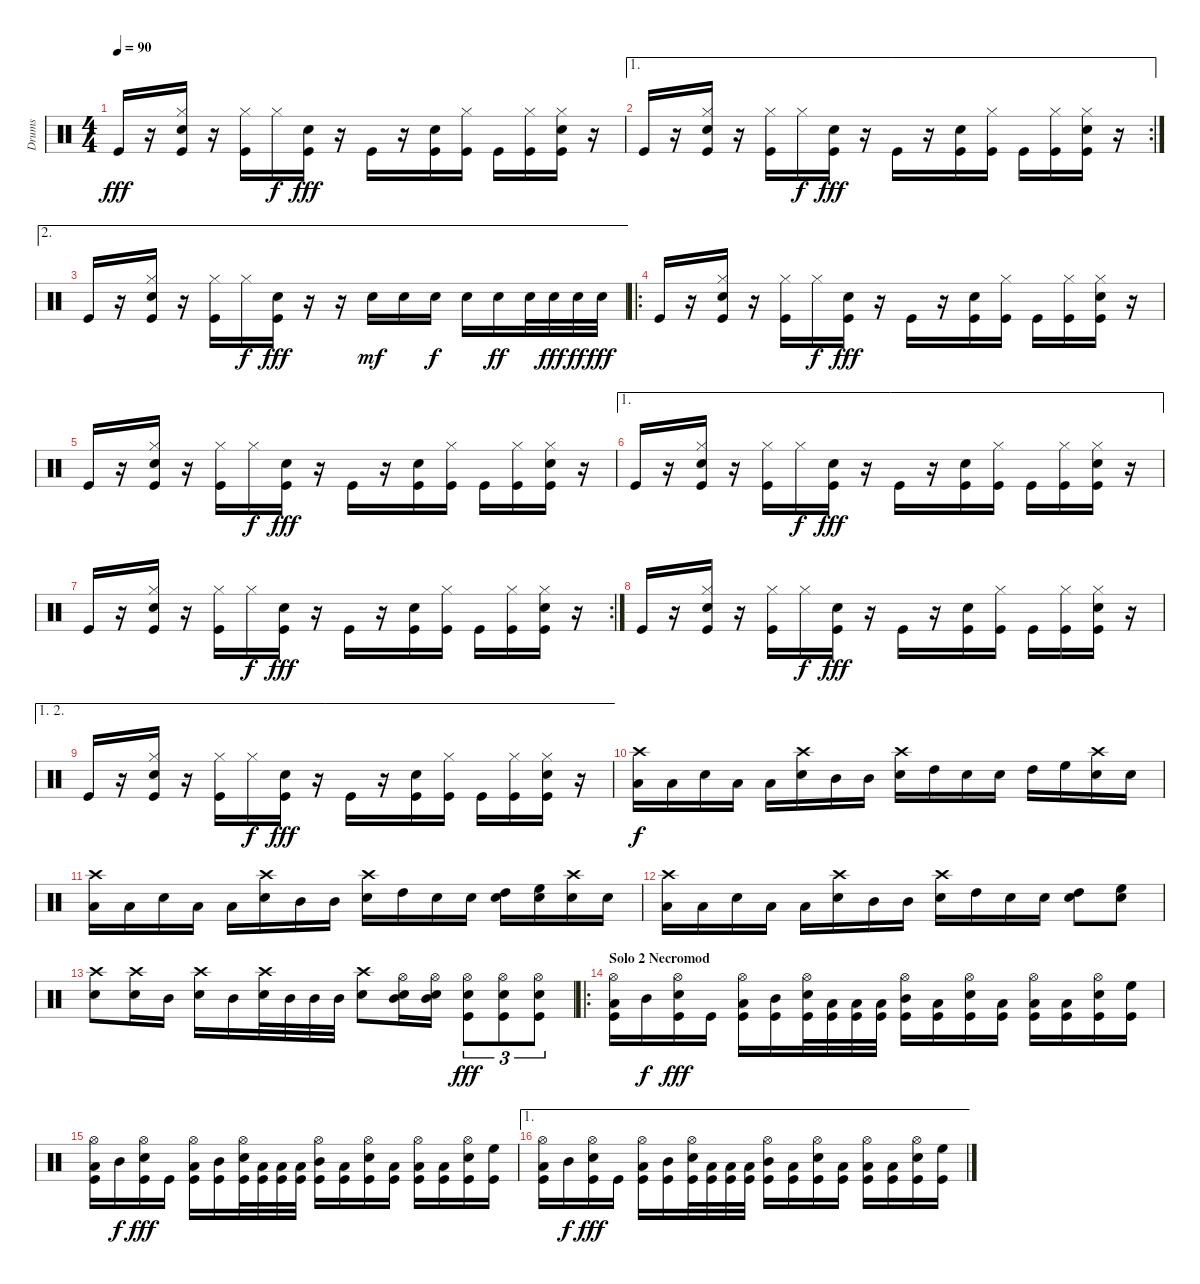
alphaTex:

\track ("Drums" "Drums") {instrument percussion}
\staff {score}
\articulation defaults
\ts (4 4)
\tempo 90
\clef neutral
\ks c "Kick (hit)".16{dy fff}
r.16 ("Hi-Hat (closed)" "Snare (hit) 2" "Kick (hit)").16 r.16 ("Hi-Hat (closed)" "Kick (hit)").16 "Hi-Hat (closed)".16{dy f} ("Snare (hit) 2" "Kick (hit)").16{dy fff} r.16 "Kick (hit)".16 r.16 ("Snare (hit) 2" "Kick (hit)").16 ("Hi-Hat (closed)" "Kick (hit)").16 "Kick (hit)".16 ("Hi-Hat (closed)" "Kick (hit)").16 ("Hi-Hat (closed)" "Snare (hit) 2" "Kick (hit)").16 r.16 |
\ae 1
\rc 2 "Kick (hit)".16
r.16 ("Hi-Hat (closed)" "Snare (hit) 2" "Kick (hit)").16 r.16 ("Hi-Hat (closed)" "Kick (hit)").16 "Hi-Hat (closed)".16{dy f} ("Snare (hit) 2" "Kick (hit)").16{dy fff} r.16 "Kick (hit)".16 r.16 ("Snare (hit) 2" "Kick (hit)").16 ("Hi-Hat (closed)" "Kick (hit)").16 "Kick (hit)".16 ("Hi-Hat (closed)" "Kick (hit)").16 ("Hi-Hat (closed)" "Snare (hit) 2" "Kick (hit)").16 r.16 |
\ae 2 "Kick (hit)".16
r.16 ("Hi-Hat (closed)" "Snare (hit) 2" "Kick (hit)").16 r.16 ("Hi-Hat (closed)" "Kick (hit)").16 "Hi-Hat (closed)".16{dy f} ("Snare (hit) 2" "Kick (hit)").16{dy fff} r.16 r.16 "Snare (hit) 2".16{dy mf} "Snare (hit) 2".16 "Snare (hit) 2".16{dy f} "Snare (hit) 2".16 "Snare (hit) 2".16{dy ff} "Snare (hit) 2".32 "Snare (hit) 2".32{dy fff} "Snare (hit) 2".32{dy ff} "Snare (hit) 2".32{dy fff} |
\ro "Kick (hit)".16
r.16 ("Hi-Hat (closed)" "Snare (hit) 2" "Kick (hit)").16 r.16 ("Hi-Hat (closed)" "Kick (hit)").16 "Hi-Hat (closed)".16{dy f} ("Snare (hit) 2" "Kick (hit)").16{dy fff} r.16 "Kick (hit)".16 r.16 ("Snare (hit) 2" "Kick (hit)").16 ("Hi-Hat (closed)" "Kick (hit)").16 "Kick (hit)".16 ("Hi-Hat (closed)" "Kick (hit)").16 ("Hi-Hat (closed)" "Snare (hit) 2" "Kick (hit)").16 r.16 |
"Kick (hit)".16 r.16 ("Hi-Hat (closed)" "Snare (hit) 2" "Kick (hit)").16 r.16 ("Hi-Hat (closed)" "Kick (hit)").16 "Hi-Hat (closed)".16{dy f} ("Snare (hit) 2" "Kick (hit)").16{dy fff} r.16 "Kick (hit)".16 r.16 ("Snare (hit) 2" "Kick (hit)").16 ("Hi-Hat (closed)" "Kick (hit)").16 "Kick (hit)".16 ("Hi-Hat (closed)" "Kick (hit)").16 ("Hi-Hat (closed)" "Snare (hit) 2" "Kick (hit)").16 r.16 |
\ae 1 "Kick (hit)".16
r.16 ("Hi-Hat (closed)" "Snare (hit) 2" "Kick (hit)").16 r.16 ("Hi-Hat (closed)" "Kick (hit)").16 "Hi-Hat (closed)".16{dy f} ("Snare (hit) 2" "Kick (hit)").16{dy fff} r.16 "Kick (hit)".16 r.16 ("Snare (hit) 2" "Kick (hit)").16 ("Hi-Hat (closed)" "Kick (hit)").16 "Kick (hit)".16 ("Hi-Hat (closed)" "Kick (hit)").16 ("Hi-Hat (closed)" "Snare (hit) 2" "Kick (hit)").16 r.16 |
\rc 2 "Kick (hit)".16
r.16 ("Hi-Hat (closed)" "Snare (hit) 2" "Kick (hit)").16 r.16 ("Hi-Hat (closed)" "Kick (hit)").16 "Hi-Hat (closed)".16{dy f} ("Snare (hit) 2" "Kick (hit)").16{dy fff} r.16 "Kick (hit)".16 r.16 ("Snare (hit) 2" "Kick (hit)").16 ("Hi-Hat (closed)" "Kick (hit)").16 "Kick (hit)".16 ("Hi-Hat (closed)" "Kick (hit)").16 ("Hi-Hat (closed)" "Snare (hit) 2" "Kick (hit)").16 r.16 |
"Kick (hit)".16 r.16 ("Hi-Hat (closed)" "Snare (hit) 2" "Kick (hit)").16 r.16 ("Hi-Hat (closed)" "Kick (hit)").16 "Hi-Hat (closed)".16{dy f} ("Snare (hit) 2" "Kick (hit)").16{dy fff} r.16 "Kick (hit)".16 r.16 ("Snare (hit) 2" "Kick (hit)").16 ("Hi-Hat (closed)" "Kick (hit)").16 "Kick (hit)".16 ("Hi-Hat (closed)" "Kick (hit)").16 ("Hi-Hat (closed)" "Snare (hit) 2" "Kick (hit)").16 r.16 |
\ae (1 2)
"Kick (hit)".16 r.16 ("Hi-Hat (closed)" "Snare (hit) 2" "Kick (hit)").16 r.16 ("Hi-Hat (closed)" "Kick (hit)").16 "Hi-Hat (closed)".16{dy f} ("Snare (hit) 2" "Kick (hit)").16{dy fff} r.16 "Kick (hit)".16 r.16 ("Snare (hit) 2" "Kick (hit)").16 ("Hi-Hat (closed)" "Kick (hit)").16 "Kick (hit)".16 ("Hi-Hat (closed)" "Kick (hit)").16 ("Hi-Hat (closed)" "Snare (hit) 2" "Kick (hit)").16 r.16 |
("Crash high (hit)" "Low Tom (hit)").16{dy f} "Low Tom (hit)".16 "Snare (hit) 2".16 "Low Tom (hit)".16 "Low Tom (hit)".16 ("Crash high (hit)" "Snare (hit) 2").16 "Mid Tom (hit)".16 "Mid Tom (hit)".16 ("Crash high (hit)" "Snare (hit) 2").16 "High Tom (hit)".16 "Snare (hit) 2".16 "Snare (hit) 2".16 "High Tom (hit)".16 "High Floor Tom (hit)".16 ("Crash high (hit)" "Snare (hit) 2").16 "Snare (hit) 2".16 |
("Crash high (hit)" "Low Tom (hit)").16 "Low Tom (hit)".16 "Snare (hit) 2".16 "Low Tom (hit)".16 "Low Tom (hit)".16 ("Crash high (hit)" "Snare (hit) 2").16 "Mid Tom (hit)".16 "Mid Tom (hit)".16 ("Crash high (hit)" "Snare (hit) 2").16 "High Tom (hit)".16 "Snare (hit) 2".16 "Snare (hit) 2".16 ("High Tom (hit)" "Snare (hit) 2").16 ("High Floor Tom (hit)" "Snare (hit) 2").16 ("Crash high (hit)" "Snare (hit) 2").16 "Snare (hit) 2".16 |
("Crash high (hit)" "Low Tom (hit)").16 "Low Tom (hit)".16 "Snare (hit) 2".16 "Low Tom (hit)".16 "Low Tom (hit)".16 ("Crash high (hit)" "Snare (hit) 2").16 "Mid Tom (hit)".16 "Mid Tom (hit)".16 ("Crash high (hit)" "Snare (hit) 2").16 "High Tom (hit)".16 "Snare (hit) 2".16 "Snare (hit) 2".16 ("High Tom (hit)" "Snare (hit) 2").8 ("High Floor Tom (hit)" "Snare (hit) 2").8 |
("Crash high (hit)" "Snare (hit) 2").8 ("Crash high (hit)" "Snare (hit) 2").16 "Mid Tom (hit)".16 ("Crash high (hit)" "Snare (hit) 2").16 "Mid Tom (hit)".16 ("Crash high (hit)" "Snare (hit) 2").32 "Mid Tom (hit)".32 "Mid Tom (hit)".32 "Mid Tom (hit)".32 ("Crash high (hit)" "Snare (hit) 2").8 ("Hi-Hat (open)" "Mid Tom (hit)" "Snare (hit) 2").16 ("Hi-Hat (open)" "Mid Tom (hit)" "Snare (hit) 2").16 ("Hi-Hat (open)" "Snare (hit) 2" "Kick (hit)").8{tu (3 2) dy fff} ("Hi-Hat (open)" "Snare (hit) 2" "Kick (hit)").8{tu (3 2)} ("Hi-Hat (open)" "Snare (hit) 2" "Kick (hit)").8{tu (3 2)} |
\ro
\section ("" "Solo 2 Necromod")
("Hi-Hat (open)" "Low Tom (hit)" "Kick (hit)").16 "Mid Tom (hit)".16{dy f} ("Hi-Hat (open)" "Snare (hit) 2" "Kick (hit)").16{dy fff} "Kick (hit)".16 ("Hi-Hat (open)" "Low Tom (hit)" "Kick (hit)").16 ("Mid Tom (hit)" "Kick (hit)").16 ("Hi-Hat (open)" "Snare (hit) 2" "Kick (hit)").32 ("Low Tom (hit)" "Kick (hit)").32 ("Low Tom (hit)" "Kick (hit)").32 ("Low Tom (hit)" "Kick (hit)").32 ("Hi-Hat (open)" "Mid Tom (hit)" "Kick (hit)").16 ("Low Tom (hit)" "Kick (hit)").16 ("Hi-Hat (open)" "Snare (hit) 2" "Kick (hit)").16 ("Low Tom (hit)" "Kick (hit)").16 ("Hi-Hat (open)" "Low Tom (hit)" "Kick (hit)").16 ("Low Tom (hit)" "Kick (hit)").16 ("Hi-Hat (open)" "Snare (hit) 2" "Kick (hit)").16 ("High Floor Tom (hit)" "Kick (hit)").16 |
("Hi-Hat (open)" "Low Tom (hit)" "Kick (hit)").16 "Mid Tom (hit)".16{dy f} ("Hi-Hat (open)" "Snare (hit) 2" "Kick (hit)").16{dy fff} "Kick (hit)".16 ("Hi-Hat (open)" "Low Tom (hit)" "Kick (hit)").16 ("Mid Tom (hit)" "Kick (hit)").16 ("Hi-Hat (open)" "Snare (hit) 2" "Kick (hit)").32 ("Low Tom (hit)" "Kick (hit)").32 ("Low Tom (hit)" "Kick (hit)").32 ("Low Tom (hit)" "Kick (hit)").32 ("Hi-Hat (open)" "Mid Tom (hit)" "Kick (hit)").16 ("Low Tom (hit)" "Kick (hit)").16 ("Hi-Hat (open)" "Snare (hit) 2" "Kick (hit)").16 ("Low Tom (hit)" "Kick (hit)").16 ("Hi-Hat (open)" "Low Tom (hit)" "Kick (hit)").16 ("Low Tom (hit)" "Kick (hit)").16 ("Hi-Hat (open)" "Snare (hit) 2" "Kick (hit)").16 ("High Floor Tom (hit)" "Kick (hit)").16 |
\ae 1
("Hi-Hat (open)" "Low Tom (hit)" "Kick (hit)").16 "Mid Tom (hit)".16{dy f} ("Hi-Hat (open)" "Snare (hit) 2" "Kick (hit)").16{dy fff} "Kick (hit)".16 ("Hi-Hat (open)" "Low Tom (hit)" "Kick (hit)").16 ("Mid Tom (hit)" "Kick (hit)").16 ("Hi-Hat (open)" "Snare (hit) 2" "Kick (hit)").32 ("Low Tom (hit)" "Kick (hit)").32 ("Low Tom (hit)" "Kick (hit)").32 ("Low Tom (hit)" "Kick (hit)").32 ("Hi-Hat (open)" "Mid Tom (hit)" "Kick (hit)").16 ("Low Tom (hit)" "Kick (hit)").16 ("Hi-Hat (open)" "Snare (hit) 2" "Kick (hit)").16 ("Low Tom (hit)" "Kick (hit)").16 ("Hi-Hat (open)" "Low Tom (hit)" "Kick (hit)").16 ("Low Tom (hit)" "Kick (hit)").16 ("Hi-Hat (open)" "Snare (hit) 2" "Kick (hit)").16 ("High Floor Tom (hit)" "Kick (hit)").16
